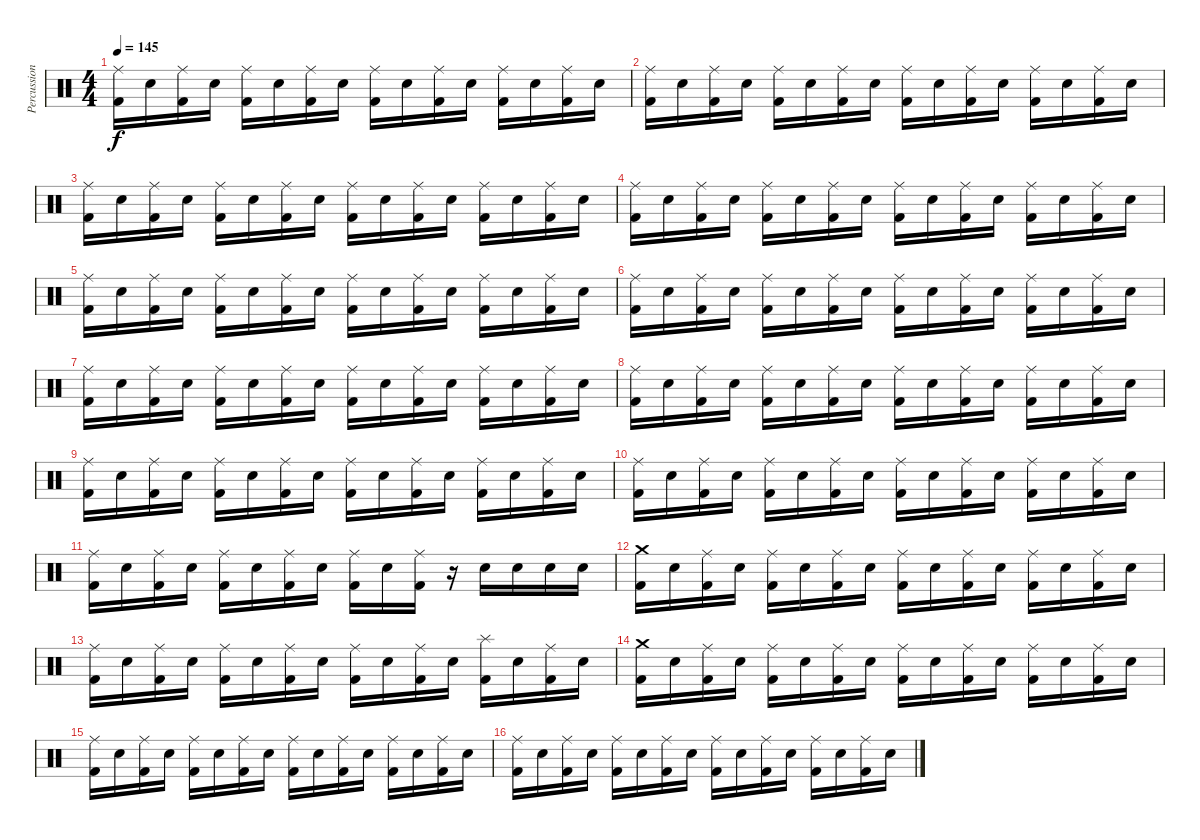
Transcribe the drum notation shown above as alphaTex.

\track ("Percussions" "Percussion") {instrument percussion}
\staff {score}
\articulation defaults
\ts (4 4)
\tempo 145
\clef neutral
\ks c
("Ride (middle)" "Kick (hit) 2").16{dy f} "Snare (hit) 2".16 ("Ride (middle)" "Kick (hit) 2").16 "Snare (hit) 2".16 ("Ride (middle)" "Kick (hit) 2").16 "Snare (hit) 2".16 ("Ride (middle)" "Kick (hit) 2").16 "Snare (hit) 2".16 ("Ride (middle)" "Kick (hit) 2").16 "Snare (hit) 2".16 ("Ride (middle)" "Kick (hit) 2").16 "Snare (hit) 2".16 ("Ride (middle)" "Kick (hit) 2").16 "Snare (hit) 2".16 ("Ride (middle)" "Kick (hit) 2").16 "Snare (hit) 2".16 |
("Ride (middle)" "Kick (hit) 2").16 "Snare (hit) 2".16 ("Ride (middle)" "Kick (hit) 2").16 "Snare (hit) 2".16 ("Ride (middle)" "Kick (hit) 2").16 "Snare (hit) 2".16 ("Ride (middle)" "Kick (hit) 2").16 "Snare (hit) 2".16 ("Ride (middle)" "Kick (hit) 2").16 "Snare (hit) 2".16 ("Ride (middle)" "Kick (hit) 2").16 "Snare (hit) 2".16 ("Ride (middle)" "Kick (hit) 2").16 "Snare (hit) 2".16 ("Ride (middle)" "Kick (hit) 2").16 "Snare (hit) 2".16 |
("Ride (middle)" "Kick (hit) 2").16 "Snare (hit) 2".16 ("Ride (middle)" "Kick (hit) 2").16 "Snare (hit) 2".16 ("Ride (middle)" "Kick (hit) 2").16 "Snare (hit) 2".16 ("Ride (middle)" "Kick (hit) 2").16 "Snare (hit) 2".16 ("Ride (middle)" "Kick (hit) 2").16 "Snare (hit) 2".16 ("Ride (middle)" "Kick (hit) 2").16 "Snare (hit) 2".16 ("Ride (middle)" "Kick (hit) 2").16 "Snare (hit) 2".16 ("Ride (middle)" "Kick (hit) 2").16 "Snare (hit) 2".16 |
("Ride (middle)" "Kick (hit) 2").16 "Snare (hit) 2".16 ("Ride (middle)" "Kick (hit) 2").16 "Snare (hit) 2".16 ("Ride (middle)" "Kick (hit) 2").16 "Snare (hit) 2".16 ("Ride (middle)" "Kick (hit) 2").16 "Snare (hit) 2".16 ("Ride (middle)" "Kick (hit) 2").16 "Snare (hit) 2".16 ("Ride (middle)" "Kick (hit) 2").16 "Snare (hit) 2".16 ("Ride (middle)" "Kick (hit) 2").16 "Snare (hit) 2".16 ("Ride (middle)" "Kick (hit) 2").16 "Snare (hit) 2".16 |
("Ride (middle)" "Kick (hit) 2").16 "Snare (hit) 2".16 ("Ride (middle)" "Kick (hit) 2").16 "Snare (hit) 2".16 ("Ride (middle)" "Kick (hit) 2").16 "Snare (hit) 2".16 ("Ride (middle)" "Kick (hit) 2").16 "Snare (hit) 2".16 ("Ride (middle)" "Kick (hit) 2").16 "Snare (hit) 2".16 ("Ride (middle)" "Kick (hit) 2").16 "Snare (hit) 2".16 ("Ride (middle)" "Kick (hit) 2").16 "Snare (hit) 2".16 ("Ride (middle)" "Kick (hit) 2").16 "Snare (hit) 2".16 |
("Ride (middle)" "Kick (hit) 2").16 "Snare (hit) 2".16 ("Ride (middle)" "Kick (hit) 2").16 "Snare (hit) 2".16 ("Ride (middle)" "Kick (hit) 2").16 "Snare (hit) 2".16 ("Ride (middle)" "Kick (hit) 2").16 "Snare (hit) 2".16 ("Ride (middle)" "Kick (hit) 2").16 "Snare (hit) 2".16 ("Ride (middle)" "Kick (hit) 2").16 "Snare (hit) 2".16 ("Ride (middle)" "Kick (hit) 2").16 "Snare (hit) 2".16 ("Ride (middle)" "Kick (hit) 2").16 "Snare (hit) 2".16 |
("Ride (middle)" "Kick (hit) 2").16 "Snare (hit) 2".16 ("Ride (middle)" "Kick (hit) 2").16 "Snare (hit) 2".16 ("Ride (middle)" "Kick (hit) 2").16 "Snare (hit) 2".16 ("Ride (middle)" "Kick (hit) 2").16 "Snare (hit) 2".16 ("Ride (middle)" "Kick (hit) 2").16 "Snare (hit) 2".16 ("Ride (middle)" "Kick (hit) 2").16 "Snare (hit) 2".16 ("Ride (middle)" "Kick (hit) 2").16 "Snare (hit) 2".16 ("Ride (middle)" "Kick (hit) 2").16 "Snare (hit) 2".16 |
("Ride (middle)" "Kick (hit) 2").16 "Snare (hit) 2".16 ("Ride (middle)" "Kick (hit) 2").16 "Snare (hit) 2".16 ("Ride (middle)" "Kick (hit) 2").16 "Snare (hit) 2".16 ("Ride (middle)" "Kick (hit) 2").16 "Snare (hit) 2".16 ("Ride (middle)" "Kick (hit) 2").16 "Snare (hit) 2".16 ("Ride (middle)" "Kick (hit) 2").16 "Snare (hit) 2".16 ("Ride (middle)" "Kick (hit) 2").16 "Snare (hit) 2".16 ("Ride (middle)" "Kick (hit) 2").16 "Snare (hit) 2".16 |
("Ride (middle)" "Kick (hit) 2").16 "Snare (hit) 2".16 ("Ride (middle)" "Kick (hit) 2").16 "Snare (hit) 2".16 ("Ride (middle)" "Kick (hit) 2").16 "Snare (hit) 2".16 ("Ride (middle)" "Kick (hit) 2").16 "Snare (hit) 2".16 ("Ride (middle)" "Kick (hit) 2").16 "Snare (hit) 2".16 ("Ride (middle)" "Kick (hit) 2").16 "Snare (hit) 2".16 ("Ride (middle)" "Kick (hit) 2").16 "Snare (hit) 2".16 ("Ride (middle)" "Kick (hit) 2").16 "Snare (hit) 2".16 |
("Ride (middle)" "Kick (hit) 2").16 "Snare (hit) 2".16 ("Ride (middle)" "Kick (hit) 2").16 "Snare (hit) 2".16 ("Ride (middle)" "Kick (hit) 2").16 "Snare (hit) 2".16 ("Ride (middle)" "Kick (hit) 2").16 "Snare (hit) 2".16 ("Ride (middle)" "Kick (hit) 2").16 "Snare (hit) 2".16 ("Ride (middle)" "Kick (hit) 2").16 "Snare (hit) 2".16 ("Ride (middle)" "Kick (hit) 2").16 "Snare (hit) 2".16 ("Ride (middle)" "Kick (hit) 2").16 "Snare (hit) 2".16 |
("Ride (middle)" "Kick (hit) 2").16 "Snare (hit) 2".16 ("Ride (middle)" "Kick (hit) 2").16 "Snare (hit) 2".16 ("Ride (middle)" "Kick (hit) 2").16 "Snare (hit) 2".16 ("Ride (middle)" "Kick (hit) 2").16 "Snare (hit) 2".16 ("Ride (middle)" "Kick (hit) 2").16 "Snare (hit) 2".16 ("Ride (middle)" "Kick (hit) 2").16 r.16 "Snare (hit) 2".16 "Snare (hit) 2".16 "Snare (hit) 2".16 "Snare (hit) 2".16 |
("Crash medium (hit)" "Kick (hit) 2").16 "Snare (hit) 2".16 ("Ride (middle)" "Kick (hit) 2").16 "Snare (hit) 2".16 ("Ride (middle)" "Kick (hit) 2").16 "Snare (hit) 2".16 ("Ride (middle)" "Kick (hit) 2").16 "Snare (hit) 2".16 ("Ride (middle)" "Kick (hit) 2").16 "Snare (hit) 2".16 ("Ride (middle)" "Kick (hit) 2").16 "Snare (hit) 2".16 ("Ride (middle)" "Kick (hit) 2").16 "Snare (hit) 2".16 ("Ride (middle)" "Kick (hit) 2").16 "Snare (hit) 2".16 |
("Ride (middle)" "Kick (hit) 2").16 "Snare (hit) 2".16 ("Ride (middle)" "Kick (hit) 2").16 "Snare (hit) 2".16 ("Ride (middle)" "Kick (hit) 2").16 "Snare (hit) 2".16 ("Ride (middle)" "Kick (hit) 2").16 "Snare (hit) 2".16 ("Ride (middle)" "Kick (hit) 2").16 "Snare (hit) 2".16 ("Ride (middle)" "Kick (hit) 2").16 "Snare (hit) 2".16 ("Splash (hit)" "Kick (hit) 2").16 "Snare (hit) 2".16 ("Ride (middle)" "Kick (hit) 2").16 "Snare (hit) 2".16 |
("Crash medium (hit)" "Kick (hit) 2").16 "Snare (hit) 2".16 ("Ride (middle)" "Kick (hit) 2").16 "Snare (hit) 2".16 ("Ride (middle)" "Kick (hit) 2").16 "Snare (hit) 2".16 ("Ride (middle)" "Kick (hit) 2").16 "Snare (hit) 2".16 ("Ride (middle)" "Kick (hit) 2").16 "Snare (hit) 2".16 ("Ride (middle)" "Kick (hit) 2").16 "Snare (hit) 2".16 ("Ride (middle)" "Kick (hit) 2").16 "Snare (hit) 2".16 ("Ride (middle)" "Kick (hit) 2").16 "Snare (hit) 2".16 |
("Ride (middle)" "Kick (hit) 2").16 "Snare (hit) 2".16 ("Ride (middle)" "Kick (hit) 2").16 "Snare (hit) 2".16 ("Ride (middle)" "Kick (hit) 2").16 "Snare (hit) 2".16 ("Ride (middle)" "Kick (hit) 2").16 "Snare (hit) 2".16 ("Ride (middle)" "Kick (hit) 2").16 "Snare (hit) 2".16 ("Ride (middle)" "Kick (hit) 2").16 "Snare (hit) 2".16 ("Ride (middle)" "Kick (hit) 2").16 "Snare (hit) 2".16 ("Ride (middle)" "Kick (hit) 2").16 "Snare (hit) 2".16 |
("Ride (middle)" "Kick (hit) 2").16 "Snare (hit) 2".16 ("Ride (middle)" "Kick (hit) 2").16 "Snare (hit) 2".16 ("Ride (middle)" "Kick (hit) 2").16 "Snare (hit) 2".16 ("Ride (middle)" "Kick (hit) 2").16 "Snare (hit) 2".16 ("Ride (middle)" "Kick (hit) 2").16 "Snare (hit) 2".16 ("Ride (middle)" "Kick (hit) 2").16 "Snare (hit) 2".16 ("Ride (middle)" "Kick (hit) 2").16 "Snare (hit) 2".16 ("Ride (middle)" "Kick (hit) 2").16 "Snare (hit) 2".16
